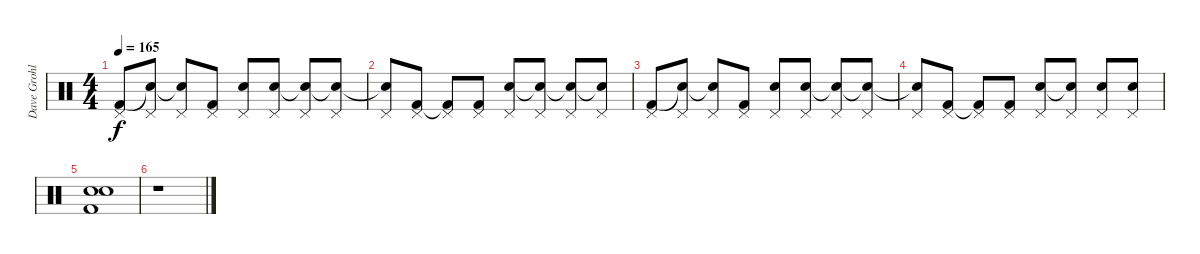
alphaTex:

\track ("Dave Grohl" "Dave Grohl") {instrument percussion}
\staff {score}
\articulation defaults
\ts (4 4)
\tempo 165
\clef neutral
\ks c
("Pedal Hi-Hat (hit)" "Kick (hit) 2").8{dy f} ("Pedal Hi-Hat (hit)" "Snare (hit)"{t}).8 ("Pedal Hi-Hat (hit)" "Snare (hit)"{t}).8 ("Pedal Hi-Hat (hit)" "Kick (hit) 2").8 ("Pedal Hi-Hat (hit)" "Snare (hit) 2").8 ("Pedal Hi-Hat (hit)" "Snare (hit) 2").8 ("Pedal Hi-Hat (hit)" "Snare (hit)"{t}).8 ("Pedal Hi-Hat (hit)" "Snare (hit)"{t}).8 |
("Pedal Hi-Hat (hit)" "Snare (hit)"{t}).8 ("Pedal Hi-Hat (hit)" "Kick (hit) 2").8 ("Pedal Hi-Hat (hit)" "Kick (hit) 2"{t}).8 ("Pedal Hi-Hat (hit)" "Kick (hit) 2").8 ("Pedal Hi-Hat (hit)" "Snare (hit) 2").8 ("Pedal Hi-Hat (hit)" "Snare (hit)"{t}).8 ("Pedal Hi-Hat (hit)" "Snare (hit)"{t}).8 ("Pedal Hi-Hat (hit)" "Snare (hit)"{t}).8 |
("Pedal Hi-Hat (hit)" "Kick (hit) 2").8 ("Pedal Hi-Hat (hit)" "Snare (hit)"{t}).8 ("Pedal Hi-Hat (hit)" "Snare (hit)"{t}).8 ("Pedal Hi-Hat (hit)" "Kick (hit) 2").8 ("Pedal Hi-Hat (hit)" "Snare (hit) 2").8 ("Pedal Hi-Hat (hit)" "Snare (hit) 2").8 ("Pedal Hi-Hat (hit)" "Snare (hit)"{t}).8 ("Pedal Hi-Hat (hit)" "Snare (hit)"{t}).8 |
("Pedal Hi-Hat (hit)" "Snare (hit)"{t}).8 ("Pedal Hi-Hat (hit)" "Kick (hit) 2").8 ("Pedal Hi-Hat (hit)" "Kick (hit) 2"{t}).8 ("Pedal Hi-Hat (hit)" "Kick (hit) 2").8 ("Pedal Hi-Hat (hit)" "Snare (hit) 2").8 ("Pedal Hi-Hat (hit)" "Snare (hit)"{t}).8 ("Pedal Hi-Hat (hit)" "Snare (hit) 2").8 ("Pedal Hi-Hat (hit)" "Snare (hit) 2").8 |
("Electric Snare (hit)" "Snare (hit) 2" "Kick (hit) 2").1 |
r.1
